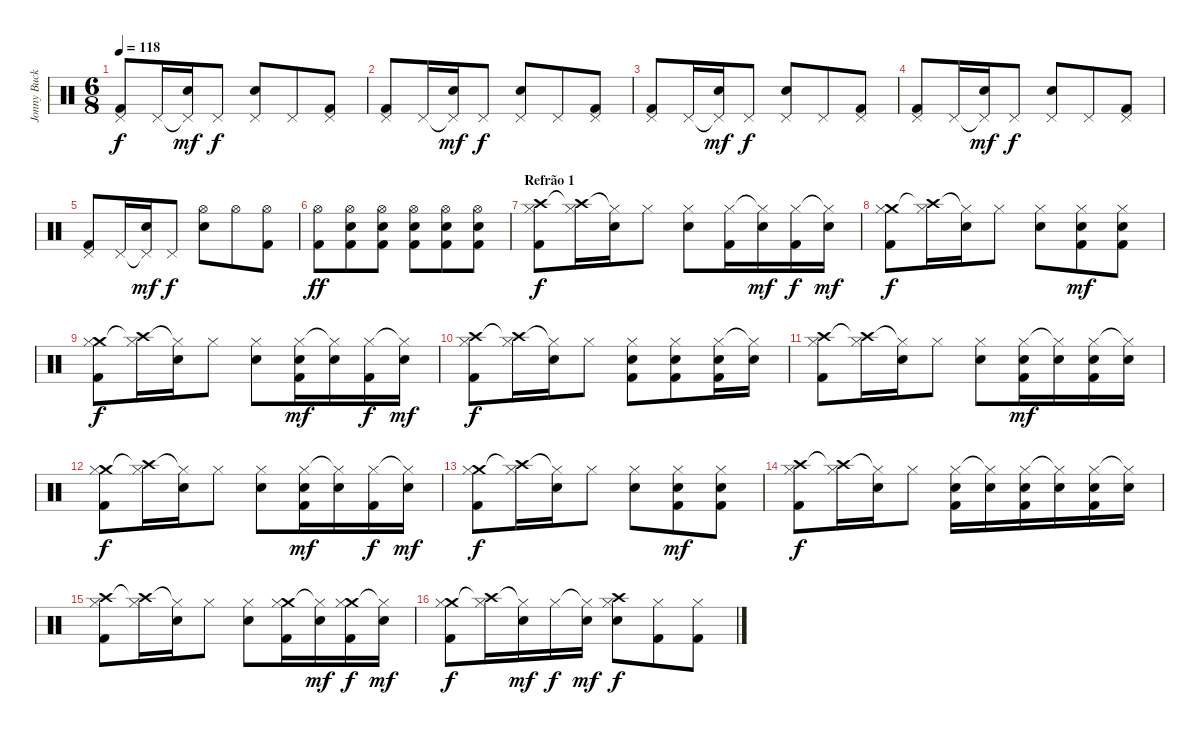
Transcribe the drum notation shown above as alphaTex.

\track ("Jonny Buckland (batera)" "Jonny Buck") {instrument percussion}
\staff {score}
\articulation defaults
\ts (6 8)
\tempo 118
\clef neutral
\ks c
("Pedal Hi-Hat (hit)" "Kick (hit) 2").8{dy f} "Pedal Hi-Hat (hit)".16 ("Pedal Hi-Hat (hit)"{t} "Snare (hit) 2").16{dy mf} "Pedal Hi-Hat (hit)".8{dy f} ("Pedal Hi-Hat (hit)" "Electric Snare (hit)").8 "Pedal Hi-Hat (hit)".8 ("Pedal Hi-Hat (hit)" "Kick (hit) 2").8 |
("Pedal Hi-Hat (hit)" "Kick (hit) 2").8 "Pedal Hi-Hat (hit)".16 ("Pedal Hi-Hat (hit)"{t} "Snare (hit) 2").16{dy mf} "Pedal Hi-Hat (hit)".8{dy f} ("Pedal Hi-Hat (hit)" "Electric Snare (hit)").8 "Pedal Hi-Hat (hit)".8 ("Pedal Hi-Hat (hit)" "Kick (hit) 2").8 |
("Pedal Hi-Hat (hit)" "Kick (hit) 2").8 "Pedal Hi-Hat (hit)".16 ("Pedal Hi-Hat (hit)"{t} "Snare (hit) 2").16{dy mf} "Pedal Hi-Hat (hit)".8{dy f} ("Pedal Hi-Hat (hit)" "Electric Snare (hit)").8 "Pedal Hi-Hat (hit)".8 ("Pedal Hi-Hat (hit)" "Kick (hit) 2").8 |
("Pedal Hi-Hat (hit)" "Kick (hit) 2").8 "Pedal Hi-Hat (hit)".16 ("Pedal Hi-Hat (hit)"{t} "Snare (hit) 2").16{dy mf} "Pedal Hi-Hat (hit)".8{dy f} ("Pedal Hi-Hat (hit)" "Electric Snare (hit)").8 "Pedal Hi-Hat (hit)".8 ("Pedal Hi-Hat (hit)" "Kick (hit) 2").8 |
("Pedal Hi-Hat (hit)" "Kick (hit) 2").8 "Pedal Hi-Hat (hit)".16 ("Pedal Hi-Hat (hit)"{t} "Snare (hit) 2").16{dy mf} "Pedal Hi-Hat (hit)".8{dy f} ("Hi-Hat (open)" "Electric Snare (hit)").8 "Hi-Hat (open)".8 ("Hi-Hat (open)" "Kick (hit) 2").8 |
("Hi-Hat (open)" "Kick (hit) 2").8{dy ff} ("Hi-Hat (open)" "Electric Snare (hit)" "Kick (hit) 2").8 ("Hi-Hat (open)" "Electric Snare (hit)" "Kick (hit) 2").8 ("Hi-Hat (open)" "Electric Snare (hit)" "Kick (hit) 2").8 ("Hi-Hat (open)" "Electric Snare (hit)" "Kick (hit) 2").8 ("Hi-Hat (open)" "Electric Snare (hit)" "Kick (hit) 2").8 |
\section ("" "Refrão 1")
("Crash high (hit)" "Hi-Hat (closed)" "Kick (hit) 2").8{dy f} ("Crash high (hit)"{t} "Hi-Hat (closed)").16 ("Hi-Hat (closed)"{t} "Electric Snare (hit)").16 "Hi-Hat (closed)".8 ("Hi-Hat (closed)" "Electric Snare (hit)").8 ("Hi-Hat (closed)" "Kick (hit) 2").16 ("Hi-Hat (closed)"{t} "Snare (hit) 2").16{dy mf} ("Hi-Hat (closed)" "Kick (hit) 2").16{dy f} ("Hi-Hat (closed)"{t} "Snare (hit) 2").16{dy mf} |
("Crash medium (hit)" "Hi-Hat (closed)" "Kick (hit) 2").8{dy f} ("Crash high (hit)"{t} "Hi-Hat (closed)").16 ("Hi-Hat (closed)"{t} "Electric Snare (hit)").16 "Hi-Hat (closed)".8 ("Hi-Hat (closed)" "Electric Snare (hit)").8 ("Hi-Hat (closed)" "Snare (hit) 2" "Kick (hit) 2").8{dy mf} ("Hi-Hat (closed)" "Snare (hit) 2" "Kick (hit) 2").8 |
("Crash medium (hit)" "Hi-Hat (closed)" "Kick (hit) 2").8{dy f} ("Crash high (hit)"{t} "Hi-Hat (closed)").16 ("Hi-Hat (closed)"{t} "Electric Snare (hit)").16 "Hi-Hat (closed)".8 ("Hi-Hat (closed)" "Electric Snare (hit)").8 ("Hi-Hat (closed)" "Snare (hit) 2" "Kick (hit) 2").16{dy mf} ("Hi-Hat (closed)"{t} "Snare (hit) 2").16 ("Hi-Hat (closed)" "Kick (hit) 2").16{dy f} ("Hi-Hat (closed)"{t} "Snare (hit) 2").16{dy mf} |
("Crash high (hit)" "Hi-Hat (closed)" "Kick (hit) 2").8{dy f} ("Crash high (hit)"{t} "Hi-Hat (closed)").16 ("Hi-Hat (closed)"{t} "Electric Snare (hit)").16 "Hi-Hat (closed)".8 ("Hi-Hat (closed)" "Electric Snare (hit)" "Kick (hit) 2").8 ("Hi-Hat (closed)" "Electric Snare (hit)" "Kick (hit) 2").8 ("Hi-Hat (closed)" "Electric Snare (hit)" "Kick (hit) 2").16 ("Hi-Hat (closed)"{t} "Electric Snare (hit)").16 |
("Crash high (hit)" "Hi-Hat (closed)" "Kick (hit) 2").8 ("Crash high (hit)"{t} "Hi-Hat (closed)").16 ("Hi-Hat (closed)"{t} "Electric Snare (hit)").16 "Hi-Hat (closed)".8 ("Hi-Hat (closed)" "Electric Snare (hit)").8 ("Hi-Hat (closed)" "Snare (hit) 2" "Kick (hit) 2").16{dy mf} ("Hi-Hat (closed)"{t} "Snare (hit) 2").16 ("Hi-Hat (closed)" "Snare (hit) 2" "Kick (hit) 2").16 ("Hi-Hat (closed)"{t} "Snare (hit) 2").16 |
("Crash medium (hit)" "Hi-Hat (closed)" "Kick (hit) 2").8{dy f} ("Crash high (hit)"{t} "Hi-Hat (closed)").16 ("Hi-Hat (closed)"{t} "Electric Snare (hit)").16 "Hi-Hat (closed)".8 ("Hi-Hat (closed)" "Electric Snare (hit)").8 ("Hi-Hat (closed)" "Snare (hit) 2" "Kick (hit) 2").16{dy mf} ("Hi-Hat (closed)"{t} "Snare (hit) 2").16 ("Hi-Hat (closed)" "Kick (hit) 2").16{dy f} ("Hi-Hat (closed)"{t} "Snare (hit) 2").16{dy mf} |
("Crash medium (hit)" "Hi-Hat (closed)" "Kick (hit) 2").8{dy f} ("Crash high (hit)"{t} "Hi-Hat (closed)").16 ("Hi-Hat (closed)"{t} "Electric Snare (hit)").16 "Hi-Hat (closed)".8 ("Hi-Hat (closed)" "Electric Snare (hit)").8 ("Hi-Hat (closed)" "Snare (hit) 2" "Kick (hit) 2").8{dy mf} ("Hi-Hat (closed)" "Snare (hit) 2" "Kick (hit) 2").8 |
("Crash high (hit)" "Hi-Hat (closed)" "Kick (hit) 2").8{dy f} ("Crash high (hit)"{t} "Hi-Hat (closed)").16 ("Hi-Hat (closed)"{t} "Electric Snare (hit)").16 "Hi-Hat (closed)".8 ("Hi-Hat (closed)" "Electric Snare (hit)" "Kick (hit) 2").16 ("Hi-Hat (closed)"{t} "Electric Snare (hit)").16 ("Hi-Hat (closed)" "Electric Snare (hit)" "Kick (hit) 2").16 ("Hi-Hat (closed)"{t} "Electric Snare (hit)").16 ("Hi-Hat (closed)" "Snare (hit) 2" "Kick (hit) 2").16 ("Hi-Hat (closed)"{t} "Snare (hit) 2").16 |
("Crash high (hit)" "Hi-Hat (closed)" "Kick (hit) 2").8 ("Crash high (hit)"{t} "Hi-Hat (closed)").16 ("Hi-Hat (closed)"{t} "Electric Snare (hit)").16 "Hi-Hat (closed)".8 ("Hi-Hat (closed)" "Electric Snare (hit)").8 ("Crash medium (hit)" "Hi-Hat (closed)" "Kick (hit) 2").16 ("Hi-Hat (closed)"{t} "Snare (hit) 2").16{dy mf} ("Crash medium (hit)" "Hi-Hat (closed)" "Kick (hit) 2").16{dy f} ("Hi-Hat (closed)"{t} "Snare (hit) 2").16{dy mf} |
("Crash medium (hit)" "Hi-Hat (closed)" "Kick (hit) 2").8{dy f} ("Crash high (hit)"{t} "Hi-Hat (closed)").16 ("Hi-Hat (closed)"{t} "Snare (hit) 2").16{dy mf} "Hi-Hat (closed)".16{dy f} ("Hi-Hat (closed)"{t} "Snare (hit) 2").16{dy mf} ("Crash high (hit)" "Hi-Hat (closed)" "Electric Snare (hit)").8{dy f} ("Hi-Hat (closed)" "Kick (hit) 2").8 ("Hi-Hat (closed)" "Kick (hit) 2").8
